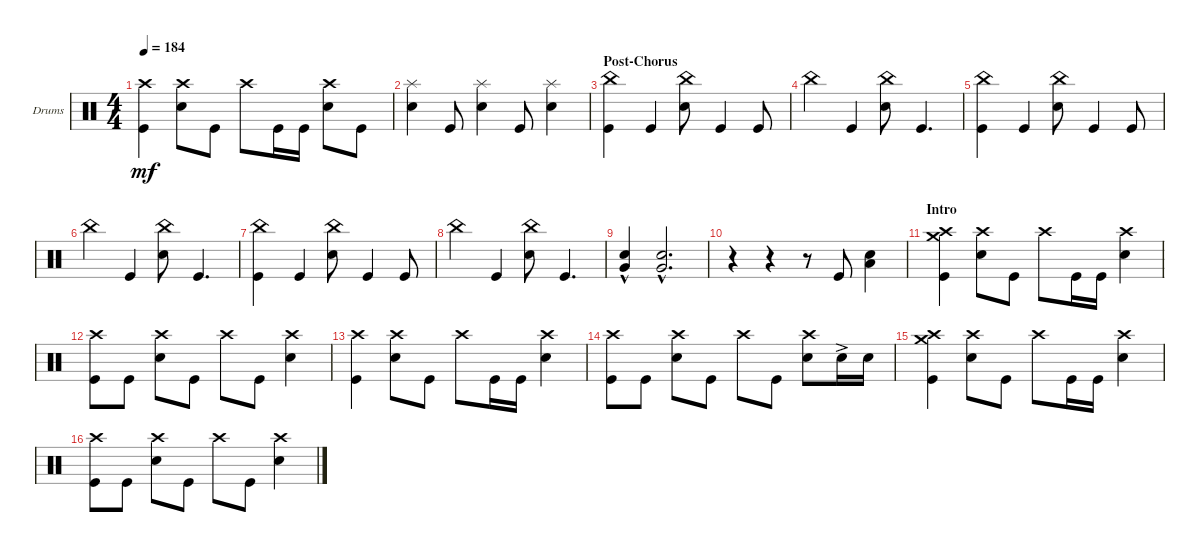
\defaultSystemsLayout 4
\bracketExtendMode groupsimilarinstruments
\firstSystemTrackNameOrientation horizontal
\otherSystemsTrackNameOrientation horizontal
\track ("Drums (Phoenix)" "Drums") {instrument percussion}
\staff {score}
\articulation defaults
\ts (4 4)
\tempo 184
\clef neutral
\ks c
("Kick (hit)" "Crash high (hit)").4{dy mf} ("Snare (hit) 2" "Crash high (hit)").8 "Kick (hit)".8 "Crash high (hit)".8 "Kick (hit)".16 "Kick (hit)".16 ("Snare (hit) 2" "Crash high (hit)").8 "Kick (hit)".8 |
("Snare (hit) 2" "Splash (hit)").4 "Kick (hit)".8 ("Snare (hit) 2" "Splash (hit)").4 "Kick (hit)".8 ("Snare (hit) 2" "Splash (hit)").4 |
\section ("" "Post-Chorus")
("Kick (hit)" "China (hit)").4 "Kick (hit)".4 ("Snare (hit) 2" "China (hit)").8 "Kick (hit)".4 "Kick (hit)".8 |
"China (hit)".4 "Kick (hit)".4 ("Snare (hit) 2" "China (hit)").8 "Kick (hit)".4{d} |
("Kick (hit)" "China (hit)").4 "Kick (hit)".4 ("Snare (hit) 2" "China (hit)").8 "Kick (hit)".4 "Kick (hit)".8 |
"China (hit)".4 "Kick (hit)".4 ("Snare (hit) 2" "China (hit)").8 "Kick (hit)".4{d} |
("Kick (hit)" "China (hit)").4 "Kick (hit)".4 ("Snare (hit) 2" "China (hit)").8 "Kick (hit)".4 "Kick (hit)".8 |
"China (hit)".4 "Kick (hit)".4 ("Snare (hit) 2" "China (hit)").8 "Kick (hit)".4{d} |
("Snare (hit) 2"{hac} "Very Low Tom (hit)").4 ("Snare (hit) 2"{hac} "Very Low Tom (hit)").2{d} |
r.4 r.4 r.8 "Kick (hit)".8 ("Snare (hit) 2" "Low Tom (hit)").4 |
\section ("" "Intro")
("Kick (hit)" "Crash high (hit)" "Crash medium (hit)").4 ("Snare (hit) 2" "Crash high (hit)").8 "Kick (hit)".8 "Crash high (hit)".8 "Kick (hit)".16 "Kick (hit)".16 ("Snare (hit) 2" "Crash high (hit)").4 |
("Kick (hit)" "Crash high (hit)").8 "Kick (hit)".8 ("Snare (hit) 2" "Crash high (hit)").8 "Kick (hit)".8 "Crash high (hit)".8 "Kick (hit)".8 ("Snare (hit) 2" "Crash high (hit)").4 |
("Kick (hit)" "Crash high (hit)").4 ("Snare (hit) 2" "Crash high (hit)").8 "Kick (hit)".8 "Crash high (hit)".8 "Kick (hit)".16 "Kick (hit)".16 ("Snare (hit) 2" "Crash high (hit)").4 |
("Kick (hit)" "Crash high (hit)").8 "Kick (hit)".8 ("Snare (hit) 2" "Crash high (hit)").8 "Kick (hit)".8 "Crash high (hit)".8 "Kick (hit)".8 ("Snare (hit) 2" "Crash high (hit)").8 "Snare (hit) 2"{ac}.16 "Snare (hit) 2".16 |
("Kick (hit)" "Crash high (hit)" "Crash medium (hit)").4 ("Snare (hit) 2" "Crash high (hit)").8 "Kick (hit)".8 "Crash high (hit)".8 "Kick (hit)".16 "Kick (hit)".16 ("Snare (hit) 2" "Crash high (hit)").4 |
("Kick (hit)" "Crash high (hit)").8 "Kick (hit)".8 ("Snare (hit) 2" "Crash high (hit)").8 "Kick (hit)".8 "Crash high (hit)".8 "Kick (hit)".8 ("Snare (hit) 2" "Crash high (hit)").4
